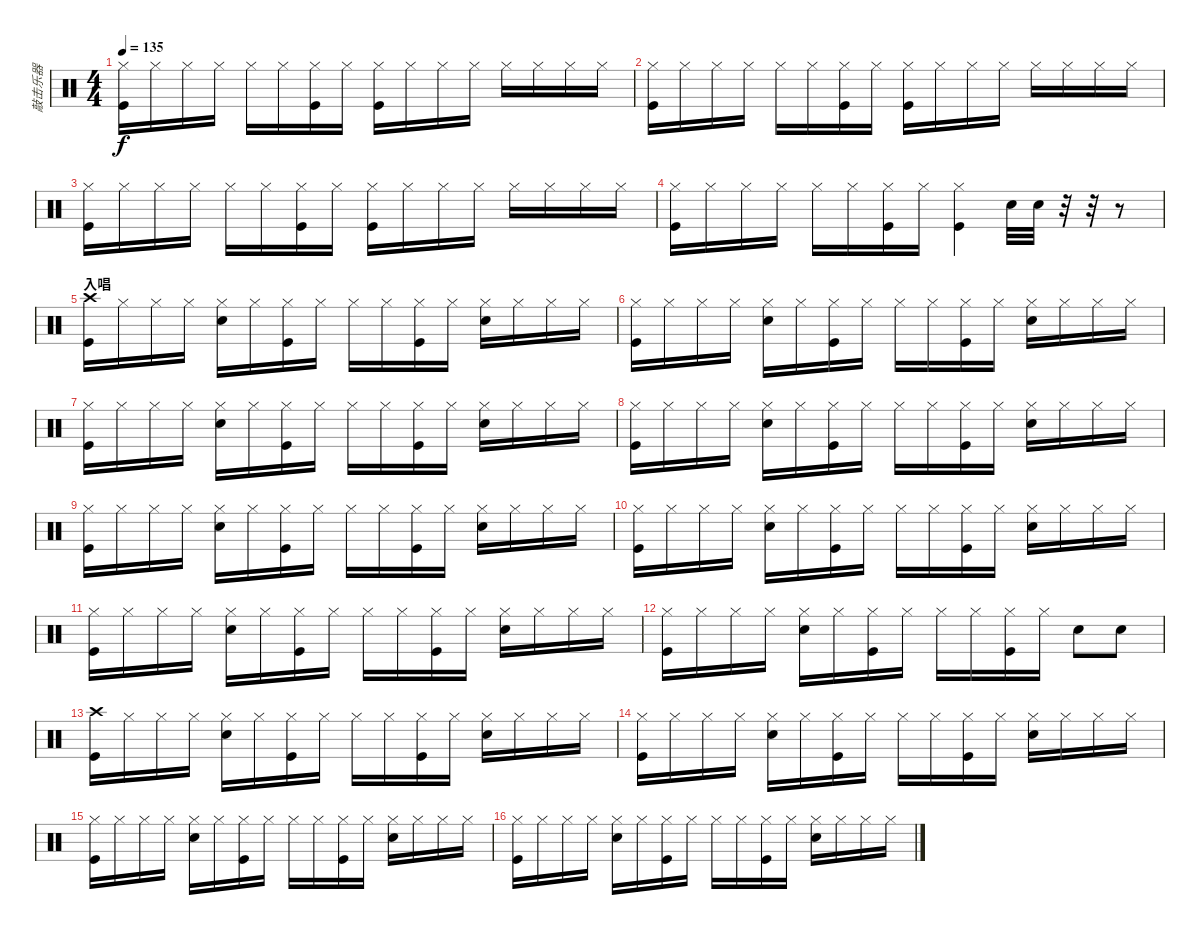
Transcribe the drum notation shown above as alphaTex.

\track ("敲击乐器" "敲击乐器") {instrument percussion}
\staff {score}
\articulation defaults
\ts (4 4)
\tempo 135
\clef neutral
\ks c
("Hi-Hat (closed)" "Kick (hit)").16{dy f} "Hi-Hat (closed)".16 "Hi-Hat (closed)".16 "Hi-Hat (closed)".16 "Hi-Hat (closed)".16 "Hi-Hat (closed)".16 ("Hi-Hat (closed)" "Kick (hit)").16 "Hi-Hat (closed)".16 ("Hi-Hat (closed)" "Kick (hit)").16 "Hi-Hat (closed)".16 "Hi-Hat (closed)".16 "Hi-Hat (closed)".16 "Hi-Hat (closed)".16 "Hi-Hat (closed)".16 "Hi-Hat (closed)".16 "Hi-Hat (closed)".16 |
("Hi-Hat (closed)" "Kick (hit)").16 "Hi-Hat (closed)".16 "Hi-Hat (closed)".16 "Hi-Hat (closed)".16 "Hi-Hat (closed)".16 "Hi-Hat (closed)".16 ("Hi-Hat (closed)" "Kick (hit)").16 "Hi-Hat (closed)".16 ("Hi-Hat (closed)" "Kick (hit)").16 "Hi-Hat (closed)".16 "Hi-Hat (closed)".16 "Hi-Hat (closed)".16 "Hi-Hat (closed)".16 "Hi-Hat (closed)".16 "Hi-Hat (closed)".16 "Hi-Hat (closed)".16 |
("Hi-Hat (closed)" "Kick (hit)").16 "Hi-Hat (closed)".16 "Hi-Hat (closed)".16 "Hi-Hat (closed)".16 "Hi-Hat (closed)".16 "Hi-Hat (closed)".16 ("Hi-Hat (closed)" "Kick (hit)").16 "Hi-Hat (closed)".16 ("Hi-Hat (closed)" "Kick (hit)").16 "Hi-Hat (closed)".16 "Hi-Hat (closed)".16 "Hi-Hat (closed)".16 "Hi-Hat (closed)".16 "Hi-Hat (closed)".16 "Hi-Hat (closed)".16 "Hi-Hat (closed)".16 |
("Hi-Hat (closed)" "Kick (hit)").16 "Hi-Hat (closed)".16 "Hi-Hat (closed)".16 "Hi-Hat (closed)".16 "Hi-Hat (closed)".16 "Hi-Hat (closed)".16 ("Hi-Hat (closed)" "Kick (hit)").16 "Hi-Hat (closed)".16 ("Hi-Hat (closed)" "Kick (hit)").4 "Electric Snare (hit)".32 "Electric Snare (hit)".32 r.32 r.32 r.8 |
\section ("" "入唱")
("Crash high (hit)" "Kick (hit)").16 "Hi-Hat (closed)".16 "Hi-Hat (closed)".16 "Hi-Hat (closed)".16 ("Hi-Hat (closed)" "Snare (hit) 2").16 "Hi-Hat (closed)".16 ("Hi-Hat (closed)" "Kick (hit)").16 "Hi-Hat (closed)".16 "Hi-Hat (closed)".16 "Hi-Hat (closed)".16 ("Hi-Hat (closed)" "Kick (hit)").16 "Hi-Hat (closed)".16 ("Hi-Hat (closed)" "Snare (hit) 2").16 "Hi-Hat (closed)".16 "Hi-Hat (closed)".16 "Hi-Hat (closed)".16 |
("Hi-Hat (closed)" "Kick (hit)").16 "Hi-Hat (closed)".16 "Hi-Hat (closed)".16 "Hi-Hat (closed)".16 ("Hi-Hat (closed)" "Snare (hit) 2").16 "Hi-Hat (closed)".16 ("Hi-Hat (closed)" "Kick (hit)").16 "Hi-Hat (closed)".16 "Hi-Hat (closed)".16 "Hi-Hat (closed)".16 ("Hi-Hat (closed)" "Kick (hit)").16 "Hi-Hat (closed)".16 ("Hi-Hat (closed)" "Snare (hit) 2").16 "Hi-Hat (closed)".16 "Hi-Hat (closed)".16 "Hi-Hat (closed)".16 |
("Hi-Hat (closed)" "Kick (hit)").16 "Hi-Hat (closed)".16 "Hi-Hat (closed)".16 "Hi-Hat (closed)".16 ("Hi-Hat (closed)" "Snare (hit) 2").16 "Hi-Hat (closed)".16 ("Hi-Hat (closed)" "Kick (hit)").16 "Hi-Hat (closed)".16 "Hi-Hat (closed)".16 "Hi-Hat (closed)".16 ("Hi-Hat (closed)" "Kick (hit)").16 "Hi-Hat (closed)".16 ("Hi-Hat (closed)" "Snare (hit) 2").16 "Hi-Hat (closed)".16 "Hi-Hat (closed)".16 "Hi-Hat (closed)".16 |
("Hi-Hat (closed)" "Kick (hit)").16 "Hi-Hat (closed)".16 "Hi-Hat (closed)".16 "Hi-Hat (closed)".16 ("Hi-Hat (closed)" "Snare (hit) 2").16 "Hi-Hat (closed)".16 ("Hi-Hat (closed)" "Kick (hit)").16 "Hi-Hat (closed)".16 "Hi-Hat (closed)".16 "Hi-Hat (closed)".16 ("Hi-Hat (closed)" "Kick (hit)").16 "Hi-Hat (closed)".16 ("Hi-Hat (closed)" "Snare (hit) 2").16 "Hi-Hat (closed)".16 "Hi-Hat (closed)".16 "Hi-Hat (closed)".16 |
("Hi-Hat (closed)" "Kick (hit)").16 "Hi-Hat (closed)".16 "Hi-Hat (closed)".16 "Hi-Hat (closed)".16 ("Hi-Hat (closed)" "Snare (hit) 2").16 "Hi-Hat (closed)".16 ("Hi-Hat (closed)" "Kick (hit)").16 "Hi-Hat (closed)".16 "Hi-Hat (closed)".16 "Hi-Hat (closed)".16 ("Hi-Hat (closed)" "Kick (hit)").16 "Hi-Hat (closed)".16 ("Hi-Hat (closed)" "Snare (hit) 2").16 "Hi-Hat (closed)".16 "Hi-Hat (closed)".16 "Hi-Hat (closed)".16 |
("Hi-Hat (closed)" "Kick (hit)").16 "Hi-Hat (closed)".16 "Hi-Hat (closed)".16 "Hi-Hat (closed)".16 ("Hi-Hat (closed)" "Snare (hit) 2").16 "Hi-Hat (closed)".16 ("Hi-Hat (closed)" "Kick (hit)").16 "Hi-Hat (closed)".16 "Hi-Hat (closed)".16 "Hi-Hat (closed)".16 ("Hi-Hat (closed)" "Kick (hit)").16 "Hi-Hat (closed)".16 ("Hi-Hat (closed)" "Snare (hit) 2").16 "Hi-Hat (closed)".16 "Hi-Hat (closed)".16 "Hi-Hat (closed)".16 |
("Hi-Hat (closed)" "Kick (hit)").16 "Hi-Hat (closed)".16 "Hi-Hat (closed)".16 "Hi-Hat (closed)".16 ("Hi-Hat (closed)" "Snare (hit) 2").16 "Hi-Hat (closed)".16 ("Hi-Hat (closed)" "Kick (hit)").16 "Hi-Hat (closed)".16 "Hi-Hat (closed)".16 "Hi-Hat (closed)".16 ("Hi-Hat (closed)" "Kick (hit)").16 "Hi-Hat (closed)".16 ("Hi-Hat (closed)" "Snare (hit) 2").16 "Hi-Hat (closed)".16 "Hi-Hat (closed)".16 "Hi-Hat (closed)".16 |
("Hi-Hat (closed)" "Kick (hit)").16 "Hi-Hat (closed)".16 "Hi-Hat (closed)".16 "Hi-Hat (closed)".16 ("Hi-Hat (closed)" "Snare (hit) 2").16 "Hi-Hat (closed)".16 ("Hi-Hat (closed)" "Kick (hit)").16 "Hi-Hat (closed)".16 "Hi-Hat (closed)".16 "Hi-Hat (closed)".16 ("Hi-Hat (closed)" "Kick (hit)").16 "Hi-Hat (closed)".16 "Snare (hit) 2".8 "Snare (hit) 2".8 |
("Crash high (hit)" "Kick (hit)").16 "Hi-Hat (closed)".16 "Hi-Hat (closed)".16 "Hi-Hat (closed)".16 ("Hi-Hat (closed)" "Snare (hit) 2").16 "Hi-Hat (closed)".16 ("Hi-Hat (closed)" "Kick (hit)").16 "Hi-Hat (closed)".16 "Hi-Hat (closed)".16 "Hi-Hat (closed)".16 ("Hi-Hat (closed)" "Kick (hit)").16 "Hi-Hat (closed)".16 ("Hi-Hat (closed)" "Snare (hit) 2").16 "Hi-Hat (closed)".16 "Hi-Hat (closed)".16 "Hi-Hat (closed)".16 |
("Hi-Hat (closed)" "Kick (hit)").16 "Hi-Hat (closed)".16 "Hi-Hat (closed)".16 "Hi-Hat (closed)".16 ("Hi-Hat (closed)" "Snare (hit) 2").16 "Hi-Hat (closed)".16 ("Hi-Hat (closed)" "Kick (hit)").16 "Hi-Hat (closed)".16 "Hi-Hat (closed)".16 "Hi-Hat (closed)".16 ("Hi-Hat (closed)" "Kick (hit)").16 "Hi-Hat (closed)".16 ("Hi-Hat (closed)" "Snare (hit) 2").16 "Hi-Hat (closed)".16 "Hi-Hat (closed)".16 "Hi-Hat (closed)".16 |
("Hi-Hat (closed)" "Kick (hit)").16 "Hi-Hat (closed)".16 "Hi-Hat (closed)".16 "Hi-Hat (closed)".16 ("Hi-Hat (closed)" "Snare (hit) 2").16 "Hi-Hat (closed)".16 ("Hi-Hat (closed)" "Kick (hit)").16 "Hi-Hat (closed)".16 "Hi-Hat (closed)".16 "Hi-Hat (closed)".16 ("Hi-Hat (closed)" "Kick (hit)").16 "Hi-Hat (closed)".16 ("Hi-Hat (closed)" "Snare (hit) 2").16 "Hi-Hat (closed)".16 "Hi-Hat (closed)".16 "Hi-Hat (closed)".16 |
("Hi-Hat (closed)" "Kick (hit)").16 "Hi-Hat (closed)".16 "Hi-Hat (closed)".16 "Hi-Hat (closed)".16 ("Hi-Hat (closed)" "Snare (hit) 2").16 "Hi-Hat (closed)".16 ("Hi-Hat (closed)" "Kick (hit)").16 "Hi-Hat (closed)".16 "Hi-Hat (closed)".16 "Hi-Hat (closed)".16 ("Hi-Hat (closed)" "Kick (hit)").16 "Hi-Hat (closed)".16 ("Hi-Hat (closed)" "Snare (hit) 2").16 "Hi-Hat (closed)".16 "Hi-Hat (closed)".16 "Hi-Hat (closed)".16
